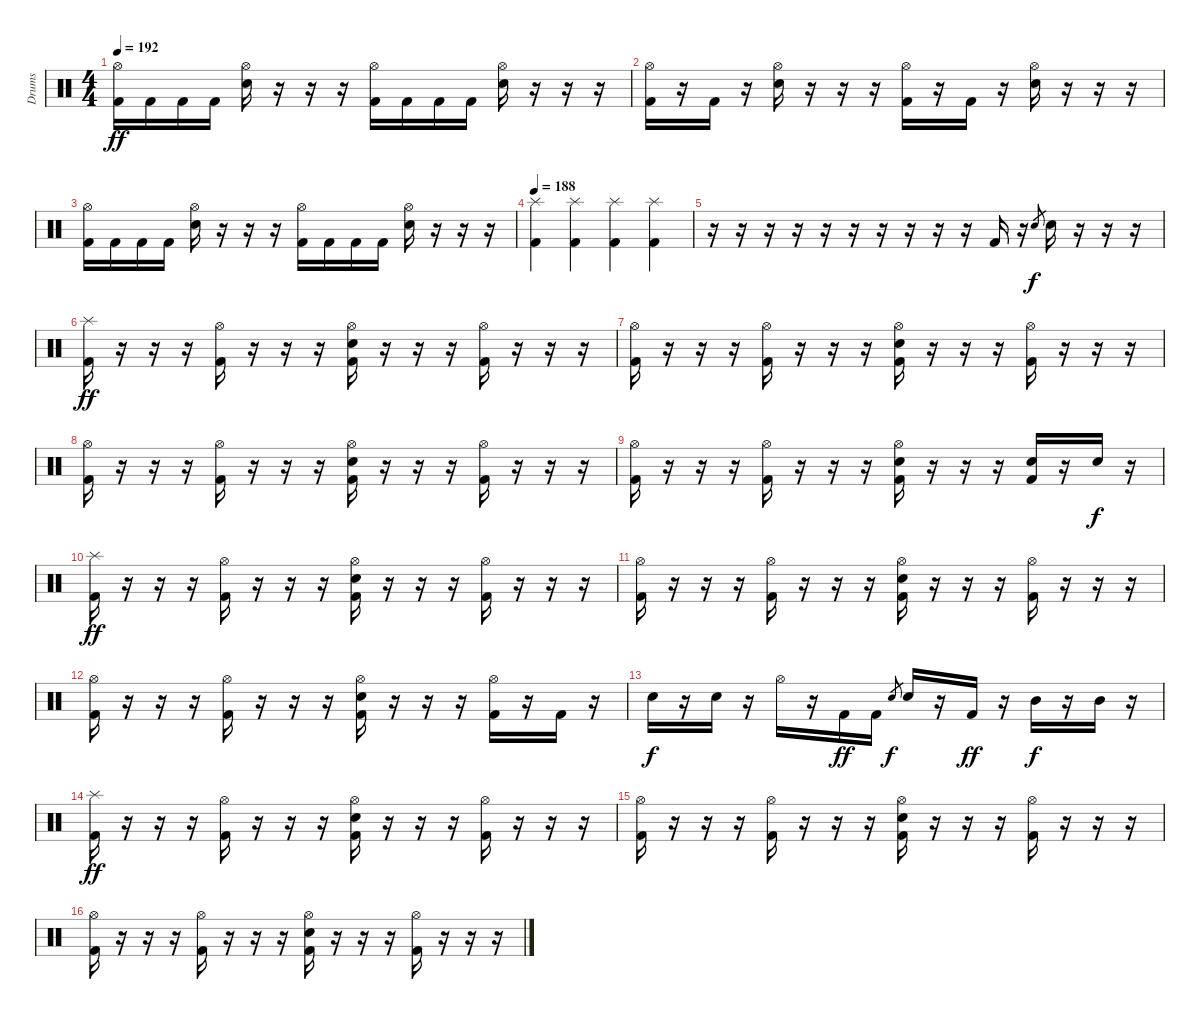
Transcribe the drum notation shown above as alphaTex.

\track ("Drums" "Drums") {instrument percussion}
\staff {score}
\articulation defaults
\ts (4 4)
\tempo 192
\clef neutral
\ks c
("Hi-Hat (open)" "Kick (hit) 2").16{dy ff} "Kick (hit) 2".16 "Kick (hit) 2".16 "Kick (hit) 2".16 ("Hi-Hat (open)" "Electric Snare (hit)").16 r.16 r.16 r.16 ("Hi-Hat (open)" "Kick (hit) 2").16 "Kick (hit) 2".16 "Kick (hit) 2".16 "Kick (hit) 2".16 ("Hi-Hat (open)" "Electric Snare (hit)").16 r.16 r.16 r.16 |
("Hi-Hat (open)" "Kick (hit) 2").16 r.16 "Kick (hit) 2".16 r.16 ("Hi-Hat (open)" "Electric Snare (hit)").16 r.16 r.16 r.16 ("Hi-Hat (open)" "Kick (hit) 2").16 r.16 "Kick (hit) 2".16 r.16 ("Hi-Hat (open)" "Electric Snare (hit)").16 r.16 r.16 r.16 |
("Hi-Hat (open)" "Kick (hit) 2").16 "Kick (hit) 2".16 "Kick (hit) 2".16 "Kick (hit) 2".16 ("Hi-Hat (open)" "Electric Snare (hit)").16 r.16 r.16 r.16 ("Hi-Hat (open)" "Kick (hit) 2").16 "Kick (hit) 2".16 "Kick (hit) 2".16 "Kick (hit) 2".16 ("Hi-Hat (open)" "Electric Snare (hit)").16 r.16 r.16 r.16 |
\tempo 188
("Splash (hit)" "Kick (hit) 2").4 ("Splash (hit)" "Kick (hit) 2").4 ("Splash (hit)" "Kick (hit) 2").4 ("Splash (hit)" "Kick (hit) 2").4 |
r.16 r.16 r.16 r.16 r.16 r.16 r.16 r.16 r.16 r.16 "Kick (hit) 2".16 r.16 "Electric Snare (hit)".8{gr dy f} "Electric Snare (hit)".16 r.16 r.16 r.16 |
("Splash (hit)" "Kick (hit) 2").16{dy ff} r.16 r.16 r.16 ("Hi-Hat (open)" "Kick (hit) 2").16 r.16 r.16 r.16 ("Hi-Hat (open)" "Electric Snare (hit)" "Kick (hit) 2").16 r.16 r.16 r.16 ("Hi-Hat (open)" "Kick (hit) 2").16 r.16 r.16 r.16 |
("Hi-Hat (open)" "Kick (hit) 2").16 r.16 r.16 r.16 ("Hi-Hat (open)" "Kick (hit) 2").16 r.16 r.16 r.16 ("Hi-Hat (open)" "Electric Snare (hit)" "Kick (hit) 2").16 r.16 r.16 r.16 ("Hi-Hat (open)" "Kick (hit) 2").16 r.16 r.16 r.16 |
("Hi-Hat (open)" "Kick (hit) 2").16 r.16 r.16 r.16 ("Hi-Hat (open)" "Kick (hit) 2").16 r.16 r.16 r.16 ("Hi-Hat (open)" "Electric Snare (hit)" "Kick (hit) 2").16 r.16 r.16 r.16 ("Hi-Hat (open)" "Kick (hit) 2").16 r.16 r.16 r.16 |
("Hi-Hat (open)" "Kick (hit) 2").16 r.16 r.16 r.16 ("Hi-Hat (open)" "Kick (hit) 2").16 r.16 r.16 r.16 ("Hi-Hat (open)" "Electric Snare (hit)" "Kick (hit) 2").16 r.16 r.16 r.16 ("Electric Snare (hit)" "Kick (hit) 2").16 r.16 "Electric Snare (hit)".16{dy f} r.16 |
("Splash (hit)" "Kick (hit) 2").16{dy ff} r.16 r.16 r.16 ("Hi-Hat (open)" "Kick (hit) 2").16 r.16 r.16 r.16 ("Hi-Hat (open)" "Electric Snare (hit)" "Kick (hit) 2").16 r.16 r.16 r.16 ("Hi-Hat (open)" "Kick (hit) 2").16 r.16 r.16 r.16 |
("Hi-Hat (open)" "Kick (hit) 2").16 r.16 r.16 r.16 ("Hi-Hat (open)" "Kick (hit) 2").16 r.16 r.16 r.16 ("Hi-Hat (open)" "Electric Snare (hit)" "Kick (hit) 2").16 r.16 r.16 r.16 ("Hi-Hat (open)" "Kick (hit) 2").16 r.16 r.16 r.16 |
("Hi-Hat (open)" "Kick (hit) 2").16 r.16 r.16 r.16 ("Hi-Hat (open)" "Kick (hit) 2").16 r.16 r.16 r.16 ("Hi-Hat (open)" "Electric Snare (hit)" "Kick (hit) 2").16 r.16 r.16 r.16 ("Hi-Hat (open)" "Kick (hit) 2").16 r.16 "Kick (hit) 2".16 r.16 |
"Electric Snare (hit)".16{dy f} r.16 "Electric Snare (hit)".16 r.16 "Hi-Hat (open)".16 r.16 "Kick (hit) 2".16{dy ff} "Kick (hit) 2".16 "Electric Snare (hit)".8{gr dy f} "Electric Snare (hit)".16 r.16 "Kick (hit) 2".16{dy ff} r.16 "Mid Tom (hit)".16{dy f} r.16 "Mid Tom (hit)".16 r.16 |
("Splash (hit)" "Kick (hit) 2").16{dy ff} r.16 r.16 r.16 ("Hi-Hat (open)" "Kick (hit) 2").16 r.16 r.16 r.16 ("Hi-Hat (open)" "Electric Snare (hit)" "Kick (hit) 2").16 r.16 r.16 r.16 ("Hi-Hat (open)" "Kick (hit) 2").16 r.16 r.16 r.16 |
("Hi-Hat (open)" "Kick (hit) 2").16 r.16 r.16 r.16 ("Hi-Hat (open)" "Kick (hit) 2").16 r.16 r.16 r.16 ("Hi-Hat (open)" "Electric Snare (hit)" "Kick (hit) 2").16 r.16 r.16 r.16 ("Hi-Hat (open)" "Kick (hit) 2").16 r.16 r.16 r.16 |
("Hi-Hat (open)" "Kick (hit) 2").16 r.16 r.16 r.16 ("Hi-Hat (open)" "Kick (hit) 2").16 r.16 r.16 r.16 ("Hi-Hat (open)" "Electric Snare (hit)" "Kick (hit) 2").16 r.16 r.16 r.16 ("Hi-Hat (open)" "Kick (hit) 2").16 r.16 r.16 r.16
